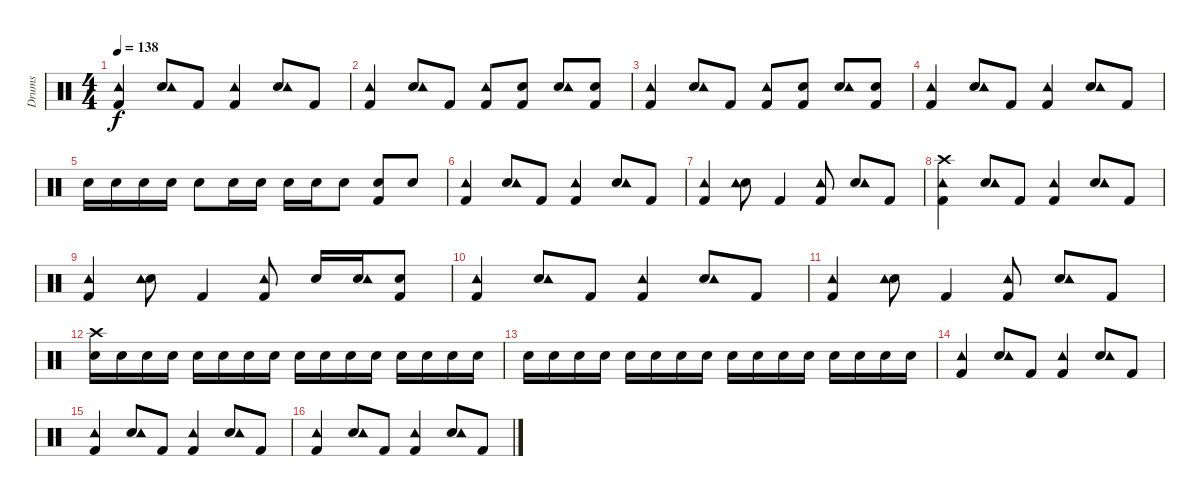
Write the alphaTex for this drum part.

\track ("Drums" "Drums") {instrument percussion}
\staff {score}
\articulation defaults
\ts (4 4)
\tempo 138
\clef neutral
\ks c
("Kick (hit) 2" "Tambourine (hit)").4{dy f} ("Snare (hit) 2" "Tambourine (hit)").8 "Kick (hit) 2".8 ("Kick (hit) 2" "Tambourine (hit)").4 ("Snare (hit) 2" "Tambourine (hit)").8 "Kick (hit) 2".8 |
("Kick (hit) 2" "Tambourine (hit)").4 ("Snare (hit) 2" "Tambourine (hit)").8 "Kick (hit) 2".8 ("Kick (hit) 2" "Tambourine (hit)").8 ("Snare (hit) 2" "Kick (hit) 2").8 ("Snare (hit) 2" "Tambourine (hit)").8 ("Snare (hit) 2" "Kick (hit) 2").8 |
("Kick (hit) 2" "Tambourine (hit)").4 ("Snare (hit) 2" "Tambourine (hit)").8 "Kick (hit) 2".8 ("Kick (hit) 2" "Tambourine (hit)").8 ("Snare (hit) 2" "Kick (hit) 2").8 ("Snare (hit) 2" "Tambourine (hit)").8 ("Snare (hit) 2" "Kick (hit) 2").8 |
("Kick (hit) 2" "Tambourine (hit)").4 ("Snare (hit) 2" "Tambourine (hit)").8 "Kick (hit) 2".8 ("Kick (hit) 2" "Tambourine (hit)").4 ("Snare (hit) 2" "Tambourine (hit)").8 "Kick (hit) 2".8 |
"Snare (hit) 2".16 "Snare (hit) 2".16 "Snare (hit) 2".16 "Snare (hit) 2".16 "Snare (hit) 2".8 "Snare (hit) 2".16 "Snare (hit) 2".16 "Snare (hit) 2".16 "Snare (hit) 2".16 "Snare (hit) 2".8 ("Snare (hit) 2" "Kick (hit) 2").8 "Snare (hit) 2".8 |
("Kick (hit) 2" "Tambourine (hit)").4 ("Snare (hit) 2" "Tambourine (hit)").8 "Kick (hit) 2".8 ("Kick (hit) 2" "Tambourine (hit)").4 ("Snare (hit) 2" "Tambourine (hit)").8 "Kick (hit) 2".8 |
("Kick (hit) 2" "Tambourine (hit)").4 ("Snare (hit) 2" "Tambourine (hit)").8 "Kick (hit) 2".4 ("Kick (hit) 2" "Tambourine (hit)").8 ("Snare (hit) 2" "Tambourine (hit)").8 "Kick (hit) 2".8 |
("Kick (hit) 2" "Tambourine (hit)" "Crash high (hit)").4 ("Snare (hit) 2" "Tambourine (hit)").8 "Kick (hit) 2".8 ("Kick (hit) 2" "Tambourine (hit)").4 ("Snare (hit) 2" "Tambourine (hit)").8 "Kick (hit) 2".8 |
("Kick (hit) 2" "Tambourine (hit)").4 ("Snare (hit) 2" "Tambourine (hit)").8 "Kick (hit) 2".4 ("Kick (hit) 2" "Tambourine (hit)").8 "Snare (hit) 2".16 ("Snare (hit) 2" "Tambourine (hit)").16 ("Kick (hit) 2" "Snare (hit) 2").8 |
("Kick (hit) 2" "Tambourine (hit)").4 ("Snare (hit) 2" "Tambourine (hit)").8 "Kick (hit) 2".8 ("Kick (hit) 2" "Tambourine (hit)").4 ("Snare (hit) 2" "Tambourine (hit)").8 "Kick (hit) 2".8 |
("Kick (hit) 2" "Tambourine (hit)").4 ("Snare (hit) 2" "Tambourine (hit)").8 "Kick (hit) 2".4 ("Kick (hit) 2" "Tambourine (hit)").8 ("Snare (hit) 2" "Tambourine (hit)").8 "Kick (hit) 2".8 |
("Snare (hit) 2" "Crash high (hit)").16 "Snare (hit) 2".16 "Snare (hit) 2".16 "Snare (hit) 2".16 "Snare (hit) 2".16 "Snare (hit) 2".16 "Snare (hit) 2".16 "Snare (hit) 2".16 "Snare (hit) 2".16 "Snare (hit) 2".16 "Snare (hit) 2".16 "Snare (hit) 2".16 "Snare (hit) 2".16 "Snare (hit) 2".16 "Snare (hit) 2".16 "Snare (hit) 2".16 |
"Snare (hit) 2".16 "Snare (hit) 2".16 "Snare (hit) 2".16 "Snare (hit) 2".16 "Snare (hit) 2".16 "Snare (hit) 2".16 "Snare (hit) 2".16 "Snare (hit) 2".16 "Snare (hit) 2".16 "Snare (hit) 2".16 "Snare (hit) 2".16 "Snare (hit) 2".16 "Snare (hit) 2".16 "Snare (hit) 2".16 "Snare (hit) 2".16 "Snare (hit) 2".16 |
("Kick (hit) 2" "Tambourine (hit)").4 ("Snare (hit) 2" "Tambourine (hit)").8 "Kick (hit) 2".8 ("Kick (hit) 2" "Tambourine (hit)").4 ("Snare (hit) 2" "Tambourine (hit)").8 "Kick (hit) 2".8 |
("Kick (hit) 2" "Tambourine (hit)").4 ("Snare (hit) 2" "Tambourine (hit)").8 "Kick (hit) 2".8 ("Kick (hit) 2" "Tambourine (hit)").4 ("Snare (hit) 2" "Tambourine (hit)").8 "Kick (hit) 2".8 |
("Kick (hit) 2" "Tambourine (hit)").4 ("Snare (hit) 2" "Tambourine (hit)").8 "Kick (hit) 2".8 ("Kick (hit) 2" "Tambourine (hit)").4 ("Snare (hit) 2" "Tambourine (hit)").8 "Kick (hit) 2".8
